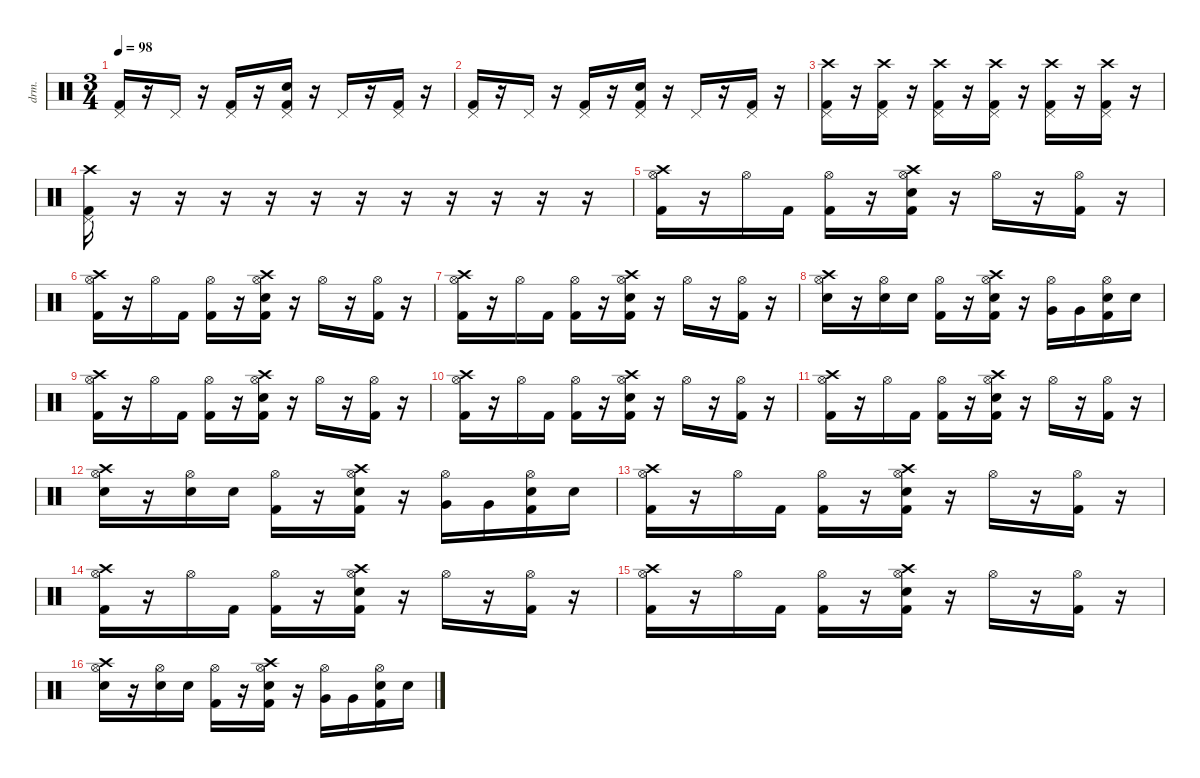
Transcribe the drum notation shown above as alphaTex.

\defaultSystemsLayout 4
\hideDynamics
\bracketExtendMode nobrackets
\otherSystemsTrackNameOrientation horizontal
\track ("Ударные" "drm.") {instrument percussion}
\staff {score}
\articulation defaults
\ts (3 4)
\tempo 98
\clef neutral
\ks c
("Kick (hit) 2" "Pedal Hi-Hat (hit)").16{dy f beam Up} r.16{beam Up} "Pedal Hi-Hat (hit)".16{beam Up} r.16{beam Up} ("Kick (hit) 2" "Pedal Hi-Hat (hit)").16{beam Up} r.16{beam Up} ("Snare (hit) 2" "Kick (hit) 2" "Pedal Hi-Hat (hit)").16{beam Up} r.16{beam Up} "Pedal Hi-Hat (hit)".16{beam Up} r.16{beam Up} ("Kick (hit) 2" "Pedal Hi-Hat (hit)").16{beam Up} r.16{beam Up} |
("Kick (hit) 2" "Pedal Hi-Hat (hit)").16{beam Up} r.16{beam Up} "Pedal Hi-Hat (hit)".16{beam Up} r.16{beam Up} ("Kick (hit) 2" "Pedal Hi-Hat (hit)").16{beam Up} r.16{beam Up} ("Snare (hit) 2" "Kick (hit) 2" "Pedal Hi-Hat (hit)").16{beam Up} r.16{beam Up} "Pedal Hi-Hat (hit)".16{beam Up} r.16{beam Up} ("Kick (hit) 2" "Pedal Hi-Hat (hit)").16{beam Up} r.16{beam Up} |
("Crash high (hit)" "Kick (hit) 2" "Pedal Hi-Hat (hit)").16{dy fff beam Down} r.16{beam Down} ("Crash high (hit)" "Kick (hit) 2" "Pedal Hi-Hat (hit)").16{dy mf beam Down} r.16{beam Down} ("Crash high (hit)" "Kick (hit) 2" "Pedal Hi-Hat (hit)").16{beam Down} r.16{beam Down} ("Crash high (hit)" "Kick (hit) 2" "Pedal Hi-Hat (hit)").16{beam Down} r.16{beam Down} ("Crash high (hit)" "Kick (hit) 2" "Pedal Hi-Hat (hit)").16{beam Down} r.16{beam Down} ("Crash high (hit)" "Kick (hit) 2" "Pedal Hi-Hat (hit)").16{beam Down} r.16{beam Down} |
("Crash high (hit)" "Kick (hit) 2" "Pedal Hi-Hat (hit)").16{beam Down} r.16{beam Down} r.16{beam Down} r.16{beam Down} r.16{beam Down} r.16{beam Down} r.16{beam Down} r.16{beam Down} r.16{beam Down} r.16{beam Down} r.16{beam Down} r.16{beam Down} |
("Crash high (hit)" "Kick (hit) 2" "Hi-Hat (open)").16{dy fff beam Down} r.16{beam Down} "Hi-Hat (open)".16{dy f beam Down} "Kick (hit) 2".16{dy mf beam Down} ("Kick (hit) 2" "Hi-Hat (open)").16{dy f beam Down} r.16{beam Down} ("Crash high (hit)" "Snare (hit) 2" "Kick (hit) 2" "Hi-Hat (open)").16{beam Down} r.16{beam Down} "Hi-Hat (open)".16{beam Down} r.16{beam Down} ("Kick (hit) 2" "Hi-Hat (open)").16{beam Down} r.16{beam Down} |
("Crash high (hit)" "Kick (hit) 2" "Hi-Hat (open)").16{dy fff beam Down} r.16{beam Down} "Hi-Hat (open)".16{dy f beam Down} "Kick (hit) 2".16{beam Down} ("Kick (hit) 2" "Hi-Hat (open)").16{beam Down} r.16{beam Down} ("Crash high (hit)" "Snare (hit) 2" "Kick (hit) 2" "Hi-Hat (open)").16{beam Down} r.16{beam Down} "Hi-Hat (open)".16{beam Down} r.16{beam Down} ("Kick (hit) 2" "Hi-Hat (open)").16{beam Down} r.16{beam Down} |
("Crash high (hit)" "Kick (hit) 2" "Hi-Hat (open)").16{dy fff beam Down} r.16{beam Down} "Hi-Hat (open)".16{dy f beam Down} "Kick (hit) 2".16{beam Down} ("Kick (hit) 2" "Hi-Hat (open)").16{beam Down} r.16{beam Down} ("Crash high (hit)" "Snare (hit) 2" "Kick (hit) 2" "Hi-Hat (open)").16{beam Down} r.16{beam Down} "Hi-Hat (open)".16{beam Down} r.16{beam Down} ("Kick (hit) 2" "Hi-Hat (open)").16{beam Down} r.16{beam Down} |
("Crash high (hit)" "Snare (hit) 2" "Hi-Hat (open)").16{dy fff beam Down} r.16{beam Down} ("Snare (hit) 2" "Hi-Hat (open)").16{dy f beam Down} "Snare (hit) 2".16{beam Down} ("Kick (hit) 2" "Hi-Hat (open)").16{beam Down} r.16{beam Down} ("Crash high (hit)" "Snare (hit) 2" "Kick (hit) 2" "Hi-Hat (open)").16{beam Down} r.16{beam Down} ("Very Low Tom (hit)" "Hi-Hat (open)").16{beam Down} "Very Low Tom (hit)".16{beam Down} ("Snare (hit) 2" "Kick (hit) 2" "Hi-Hat (open)").16{beam Down} "Snare (hit) 2".16{beam Down} |
("Crash high (hit)" "Kick (hit) 2" "Hi-Hat (open)").16{dy fff beam Down} r.16{beam Down} "Hi-Hat (open)".16{dy f beam Down} "Kick (hit) 2".16{dy mf beam Down} ("Kick (hit) 2" "Hi-Hat (open)").16{dy f beam Down} r.16{beam Down} ("Crash high (hit)" "Snare (hit) 2" "Kick (hit) 2" "Hi-Hat (open)").16{beam Down} r.16{beam Down} "Hi-Hat (open)".16{beam Down} r.16{beam Down} ("Kick (hit) 2" "Hi-Hat (open)").16{beam Down} r.16{beam Down} |
("Crash high (hit)" "Kick (hit) 2" "Hi-Hat (open)").16{dy fff beam Down} r.16{beam Down} "Hi-Hat (open)".16{dy f beam Down} "Kick (hit) 2".16{beam Down} ("Kick (hit) 2" "Hi-Hat (open)").16{beam Down} r.16{beam Down} ("Crash high (hit)" "Snare (hit) 2" "Kick (hit) 2" "Hi-Hat (open)").16{beam Down} r.16{beam Down} "Hi-Hat (open)".16{beam Down} r.16{beam Down} ("Kick (hit) 2" "Hi-Hat (open)").16{beam Down} r.16{beam Down} |
("Crash high (hit)" "Kick (hit) 2" "Hi-Hat (open)").16{dy fff beam Down} r.16{beam Down} "Hi-Hat (open)".16{dy f beam Down} "Kick (hit) 2".16{beam Down} ("Kick (hit) 2" "Hi-Hat (open)").16{beam Down} r.16{beam Down} ("Crash high (hit)" "Snare (hit) 2" "Kick (hit) 2" "Hi-Hat (open)").16{beam Down} r.16{beam Down} "Hi-Hat (open)".16{beam Down} r.16{beam Down} ("Kick (hit) 2" "Hi-Hat (open)").16{beam Down} r.16{beam Down} |
("Crash high (hit)" "Snare (hit) 2" "Hi-Hat (open)").16{dy fff beam Down} r.16{beam Down} ("Snare (hit) 2" "Hi-Hat (open)").16{dy f beam Down} "Snare (hit) 2".16{beam Down} ("Kick (hit) 2" "Hi-Hat (open)").16{beam Down} r.16{beam Down} ("Crash high (hit)" "Snare (hit) 2" "Kick (hit) 2" "Hi-Hat (open)").16{beam Down} r.16{beam Down} ("Very Low Tom (hit)" "Hi-Hat (open)").16{beam Down} "Very Low Tom (hit)".16{beam Down} ("Snare (hit) 2" "Kick (hit) 2" "Hi-Hat (open)").16{beam Down} "Snare (hit) 2".16{beam Down} |
("Crash high (hit)" "Kick (hit) 2" "Hi-Hat (open)").16{dy fff beam Down} r.16{beam Down} "Hi-Hat (open)".16{dy f beam Down} "Kick (hit) 2".16{dy mf beam Down} ("Kick (hit) 2" "Hi-Hat (open)").16{dy f beam Down} r.16{beam Down} ("Crash high (hit)" "Snare (hit) 2" "Kick (hit) 2" "Hi-Hat (open)").16{beam Down} r.16{beam Down} "Hi-Hat (open)".16{beam Down} r.16{beam Down} ("Kick (hit) 2" "Hi-Hat (open)").16{beam Down} r.16{beam Down} |
("Crash high (hit)" "Kick (hit) 2" "Hi-Hat (open)").16{dy fff beam Down} r.16{beam Down} "Hi-Hat (open)".16{dy f beam Down} "Kick (hit) 2".16{beam Down} ("Kick (hit) 2" "Hi-Hat (open)").16{beam Down} r.16{beam Down} ("Crash high (hit)" "Snare (hit) 2" "Kick (hit) 2" "Hi-Hat (open)").16{beam Down} r.16{beam Down} "Hi-Hat (open)".16{beam Down} r.16{beam Down} ("Kick (hit) 2" "Hi-Hat (open)").16{beam Down} r.16{beam Down} |
("Crash high (hit)" "Kick (hit) 2" "Hi-Hat (open)").16{dy fff beam Down} r.16{beam Down} "Hi-Hat (open)".16{dy f beam Down} "Kick (hit) 2".16{beam Down} ("Kick (hit) 2" "Hi-Hat (open)").16{beam Down} r.16{beam Down} ("Crash high (hit)" "Snare (hit) 2" "Kick (hit) 2" "Hi-Hat (open)").16{beam Down} r.16{beam Down} "Hi-Hat (open)".16{beam Down} r.16{beam Down} ("Kick (hit) 2" "Hi-Hat (open)").16{beam Down} r.16{beam Down} |
("Crash high (hit)" "Snare (hit) 2" "Hi-Hat (open)").16{dy fff beam Down} r.16{beam Down} ("Snare (hit) 2" "Hi-Hat (open)").16{dy f beam Down} "Snare (hit) 2".16{beam Down} ("Kick (hit) 2" "Hi-Hat (open)").16{beam Down} r.16{beam Down} ("Crash high (hit)" "Snare (hit) 2" "Kick (hit) 2" "Hi-Hat (open)").16{beam Down} r.16{beam Down} ("Very Low Tom (hit)" "Hi-Hat (open)").16{beam Down} "Very Low Tom (hit)".16{beam Down} ("Snare (hit) 2" "Kick (hit) 2" "Hi-Hat (open)").16{beam Down} "Snare (hit) 2".16{beam Down}
